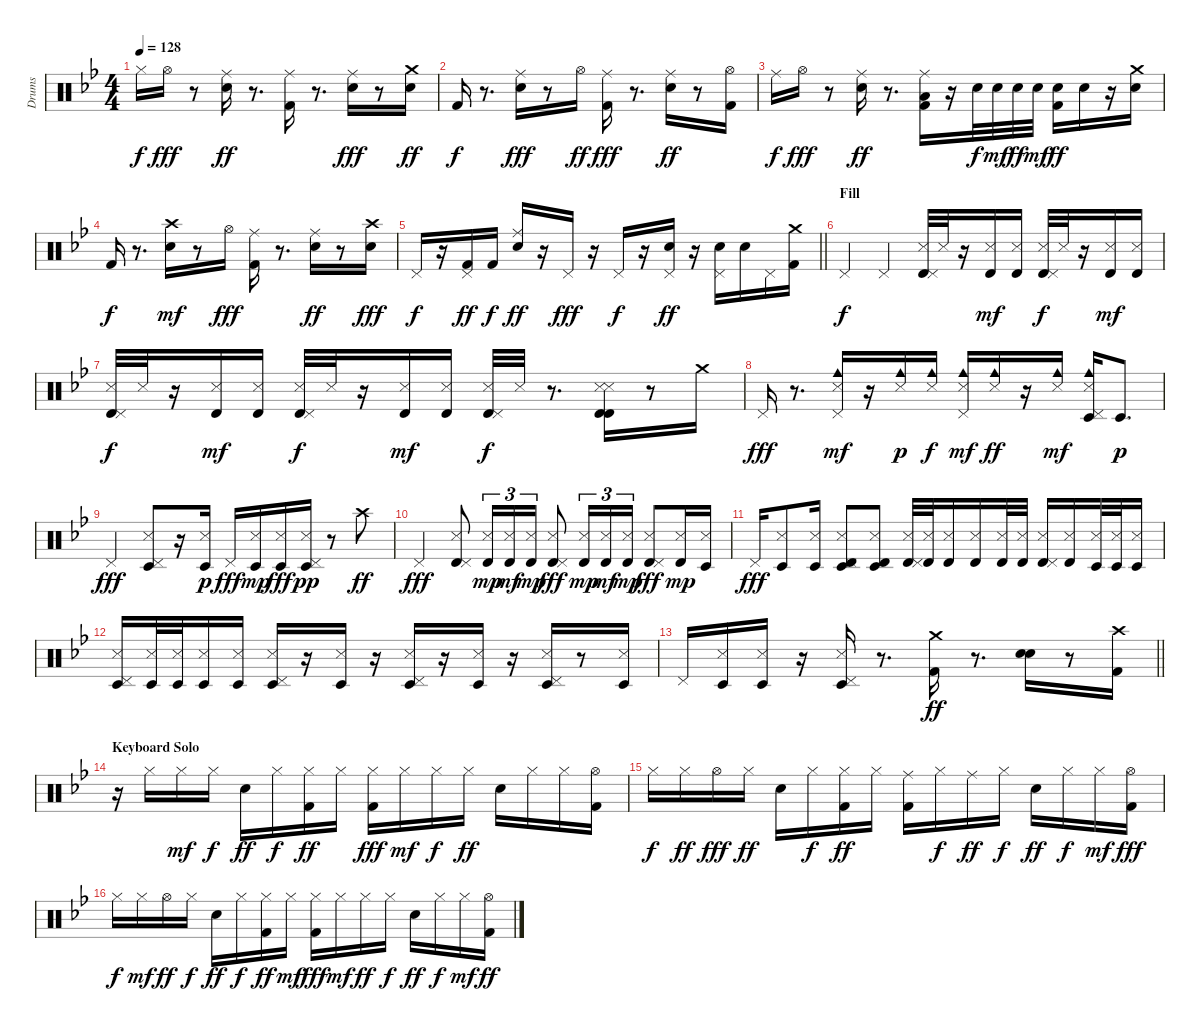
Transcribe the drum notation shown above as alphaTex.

\track ("Drums" "Drums") {instrument percussion}
\staff {score}
\articulation defaults
\ts (4 4)
\tempo 128
\clef neutral
\ks gminor "Hi-Hat (closed)".16{dy f} "Hi-Hat (open)".16{dy fff}
r.8 ("Snare (hit) 2" "Ride (middle)").16{dy ff} r.8{d} ("Kick (hit) 2" "Ride (middle)").16 r.8{d} ("Snare (hit) 2" "Ride (middle)").16{dy fff} r.8 ("Snare (hit) 2" "Crash medium (hit)").16{dy ff} |
"Kick (hit) 2".16{dy f} r.8{d} ("Snare (hit) 2" "Ride (middle)").16{dy fff} r.8 "Hi-Hat (open)".16{dy ff} ("Kick (hit) 2" "Ride (middle)").16{dy fff} r.8{d} ("Snare (hit) 2" "Ride (middle)").16{dy ff} r.8 ("Kick (hit) 2" "Hi-Hat (open)").16 |
"Ride (middle)".16{dy f} "Hi-Hat (open)".16{dy fff} r.8 ("Ride (middle)" "Snare (hit) 2").16{dy ff} r.8{d} ("Ride (middle)" "Kick (hit) 2" "Low Tom (hit)").16 r.16 "Snare (hit) 2".32{dy f} "Snare (hit) 2".32{dy mf} "Snare (hit) 2".32{dy ff} "Snare (hit) 2".32{dy mf} ("Kick (hit) 2" "Snare (hit) 2").16{dy ff} "Snare (hit) 2".16 r.16 ("Snare (hit) 2" "Crash medium (hit)").16 |
"Kick (hit) 2".16{dy f} r.8{d} ("Snare (hit) 2" "Crash high (hit)").16{dy mf} r.8 "Hi-Hat (open)".16{dy fff} ("Kick (hit) 2" "Ride (middle)").16 r.8{d} ("Snare (hit) 2" "Ride (middle)").16{dy ff} r.8 ("Snare (hit) 2" "Crash high (hit)").16{dy fff} |
\barLineRight lightlight "Pedal Hi-Hat (hit)".16{dy f}
r.16 ("Pedal Hi-Hat (hit)" "Kick (hit) 2").16{dy ff} "Kick (hit) 2".16{dy f} ("Snare (hit) 2" "Ride (middle)").16{dy ff} r.16 "Pedal Hi-Hat (hit)".16{dy fff} r.16 "Pedal Hi-Hat (hit)".16{dy f} r.16 ("Pedal Hi-Hat (hit)" "Snare (hit) 2").16{dy ff} r.16 ("Pedal Hi-Hat (hit)" "Snare (hit) 2").16 "Snare (hit) 2".16 "Pedal Hi-Hat (hit)".16 ("Crash medium (hit)" "Kick (hit) 2").16 |
\section ("" "Fill")
"Pedal Hi-Hat (hit)".4{dy f} "Pedal Hi-Hat (hit)".4 ("Timbale high (hit)" "Snare (side stick) 3" "Pedal Hi-Hat (hit)").32 "Snare (side stick) 3".32 r.16 ("Timbale high (hit)" "Snare (side stick) 3").16{dy mf} ("Timbale high (hit)" "Snare (side stick) 3").16 ("Timbale high (hit)" "Pedal Hi-Hat (hit)" "Snare (side stick) 3").32{dy f} "Snare (side stick) 3".32 r.16 ("Timbale high (hit)" "Snare (side stick) 3").16{dy mf} ("Timbale high (hit)" "Snare (side stick) 3").16 |
("Timbale high (hit)" "Pedal Hi-Hat (hit)" "Snare (side stick) 3").32{dy f} "Snare (side stick) 3".32 r.16 ("Timbale high (hit)" "Snare (side stick) 3").16{dy mf} ("Timbale high (hit)" "Snare (side stick) 3").16 ("Timbale high (hit)" "Pedal Hi-Hat (hit)" "Snare (side stick) 3").32{dy f} "Snare (side stick) 3".32 r.16 ("Timbale high (hit)" "Snare (side stick) 3").16{dy mf} ("Timbale high (hit)" "Snare (side stick) 3").16 ("Timbale high (hit)" "Pedal Hi-Hat (hit)" "Snare (side stick) 3").32{dy f} "Snare (side stick) 3".32 r.8{d} ("Timbale high (hit)" "Snare (side stick) 3" "Timbale high (hit)" "Snare (side stick) 3").16 r.8 "Crash medium (hit)".16 |
"Pedal Hi-Hat (hit)".16{dy fff} r.8{d} ("Pedal Hi-Hat (hit)" "Cowbell medium (hit)" "Snare (side stick) 3").16{dy mf} r.16 ("Cowbell medium (hit)" "Snare (side stick) 3").16{dy p} ("Cowbell medium (hit)" "Snare (side stick) 3").16{dy f} ("Pedal Hi-Hat (hit)" "Cowbell medium (hit)" "Snare (side stick) 3").16{dy mf} ("Cowbell medium (hit)" "Snare (side stick) 3").16{dy ff} r.16 ("Cowbell medium (hit)" "Snare (side stick) 3").16{dy mf} ("Timbale low (hit)" "Pedal Hi-Hat (hit)" "Cowbell medium (hit)" "Snare (side stick) 3").16 "Timbale low (hit)".8{d dy p} |
"Pedal Hi-Hat (hit)".4{dy fff} ("Timbale low (hit)" "Pedal Hi-Hat (hit)" "Snare (side stick) 3").8 r.16 ("Timbale low (hit)" "Snare (side stick) 3").16{dy p} "Pedal Hi-Hat (hit)".16{dy fff} ("Timbale low (hit)" "Snare (side stick) 3").16{dy mp} ("Timbale low (hit)" "Snare (side stick) 3").16{dy fff} ("Timbale low (hit)" "Pedal Hi-Hat (hit)" "Snare (side stick) 3").16{dy pp} r.8 "Crash high (hit)".8{dy ff} |
"Pedal Hi-Hat (hit)".4{dy fff} ("Timbale high (hit)" "Pedal Hi-Hat (hit)" "Snare (side stick) 3").8 ("Timbale high (hit)" "Snare (side stick) 3").16{tu (3 2) dy mp} ("Timbale high (hit)" "Snare (side stick) 3").16{tu (3 2) dy mf} ("Timbale high (hit)" "Snare (side stick) 3").16{tu (3 2) dy mp} ("Timbale high (hit)" "Pedal Hi-Hat (hit)" "Snare (side stick) 3").8{dy fff} ("Timbale high (hit)" "Snare (side stick) 3").16{tu (3 2) dy mp} ("Timbale high (hit)" "Snare (side stick) 3").16{tu (3 2) dy mf} ("Timbale high (hit)" "Snare (side stick) 3").16{tu (3 2) dy mp} ("Timbale high (hit)" "Pedal Hi-Hat (hit)" "Snare (side stick) 3").8{dy fff} ("Timbale high (hit)" "Snare (side stick) 3").16{dy mp} ("Timbale low (hit)" "Snare (side stick) 3").16 |
"Pedal Hi-Hat (hit)".16{dy fff} ("Timbale low (hit)" "Snare (side stick) 3").8 ("Timbale low (hit)" "Snare (side stick) 3").16 ("Timbale low (hit)" "Timbale high (hit)" "Pedal Hi-Hat (hit)" "Snare (side stick) 3").8 ("Timbale low (hit)" "Timbale high (hit)" "Snare (side stick) 3").8 ("Timbale high (hit)" "Pedal Hi-Hat (hit)" "Snare (side stick) 3").32 ("Timbale high (hit)" "Snare (side stick) 3").32 ("Timbale high (hit)" "Snare (side stick) 3").16 ("Timbale high (hit)" "Snare (side stick) 3").16 ("Timbale high (hit)" "Snare (side stick) 3").32 ("Timbale high (hit)" "Snare (side stick) 3").32 ("Timbale high (hit)" "Pedal Hi-Hat (hit)" "Snare (side stick) 3").16 ("Timbale high (hit)" "Snare (side stick) 3").16 ("Timbale low (hit)" "Snare (side stick) 3").32 ("Timbale low (hit)" "Snare (side stick) 3").32 ("Timbale low (hit)" "Snare (side stick) 3").16 |
("Timbale low (hit)" "Pedal Hi-Hat (hit)" "Snare (side stick) 3").16 ("Timbale low (hit)" "Snare (side stick) 3").32 ("Timbale low (hit)" "Snare (side stick) 3").32 ("Timbale low (hit)" "Snare (side stick) 3").16 ("Timbale low (hit)" "Snare (side stick) 3").16 ("Timbale low (hit)" "Pedal Hi-Hat (hit)" "Snare (side stick) 3").16 r.16 ("Timbale low (hit)" "Snare (side stick) 3").16 r.16 ("Timbale low (hit)" "Pedal Hi-Hat (hit)" "Snare (side stick) 3").16 r.16 ("Timbale low (hit)" "Snare (side stick) 3").16 r.16 ("Timbale low (hit)" "Pedal Hi-Hat (hit)" "Snare (side stick) 3").16 r.8 ("Timbale low (hit)" "Snare (side stick) 3").16 |
\barLineRight lightlight "Pedal Hi-Hat (hit)".16
("Timbale low (hit)" "Snare (side stick) 3").16 ("Timbale low (hit)" "Snare (side stick) 3").16 r.16 ("Pedal Hi-Hat (hit)" "Timbale low (hit)" "Snare (side stick) 3").16 r.8{d} ("Crash medium (hit)" "Kick (hit) 2").16{dy ff} r.8{d} ("Snare (hit) 2" "Snare (hit) 2").16 r.8 ("Crash high (hit)" "Kick (hit) 2").16 |
\section ("" "Keyboard Solo")
r.16 "Hi-Hat (closed)".16 "Hi-Hat (closed)".16{dy mf} "Hi-Hat (closed)".16{dy f} "Snare (hit) 2".16{dy ff} "Hi-Hat (closed)".16{dy f} ("Hi-Hat (closed)" "Kick (hit) 2").16{dy ff} "Hi-Hat (closed)".16 ("Hi-Hat (closed)" "Kick (hit) 2").16{dy fff} "Hi-Hat (closed)".16{dy mf} "Hi-Hat (closed)".16{dy f} "Hi-Hat (closed)".16{dy ff} "Snare (hit) 2".16 "Hi-Hat (closed)".16 "Hi-Hat (closed)".16 ("Hi-Hat (open)" "Kick (hit) 2").16 |
"Hi-Hat (closed)".16{dy f} "Hi-Hat (closed)".16{dy ff} "Hi-Hat (open)".16{dy fff} "Hi-Hat (closed)".16{dy ff} "Snare (hit) 2".16 "Hi-Hat (closed)".16{dy f} ("Hi-Hat (closed)" "Kick (hit) 2").16{dy ff} "Hi-Hat (closed)".16 ("Ride (middle)" "Kick (hit) 2").16 "Hi-Hat (closed)".16{dy f} "Ride (middle)".16{dy ff} "Hi-Hat (closed)".16{dy f} "Snare (hit) 2".16{dy ff} "Hi-Hat (closed)".16{dy f} "Hi-Hat (closed)".16{dy mf} ("Hi-Hat (open)" "Kick (hit) 2").16{dy fff} |
"Hi-Hat (closed)".16{dy f} "Hi-Hat (closed)".16{dy mf} "Hi-Hat (open)".16{dy ff} "Hi-Hat (closed)".16{dy f} "Snare (hit) 2".16{dy ff} "Hi-Hat (closed)".16{dy f} ("Hi-Hat (closed)" "Kick (hit) 2").16{dy ff} "Hi-Hat (closed)".16{dy mf} ("Hi-Hat (closed)" "Kick (hit) 2").16{dy fff} "Hi-Hat (closed)".16{dy mf} "Hi-Hat (closed)".16{dy ff} "Hi-Hat (closed)".16{dy f} "Snare (hit) 2".16{dy ff} "Hi-Hat (closed)".16{dy f} "Hi-Hat (closed)".16{dy mf} ("Hi-Hat (open)" "Kick (hit) 2").16{dy ff}
